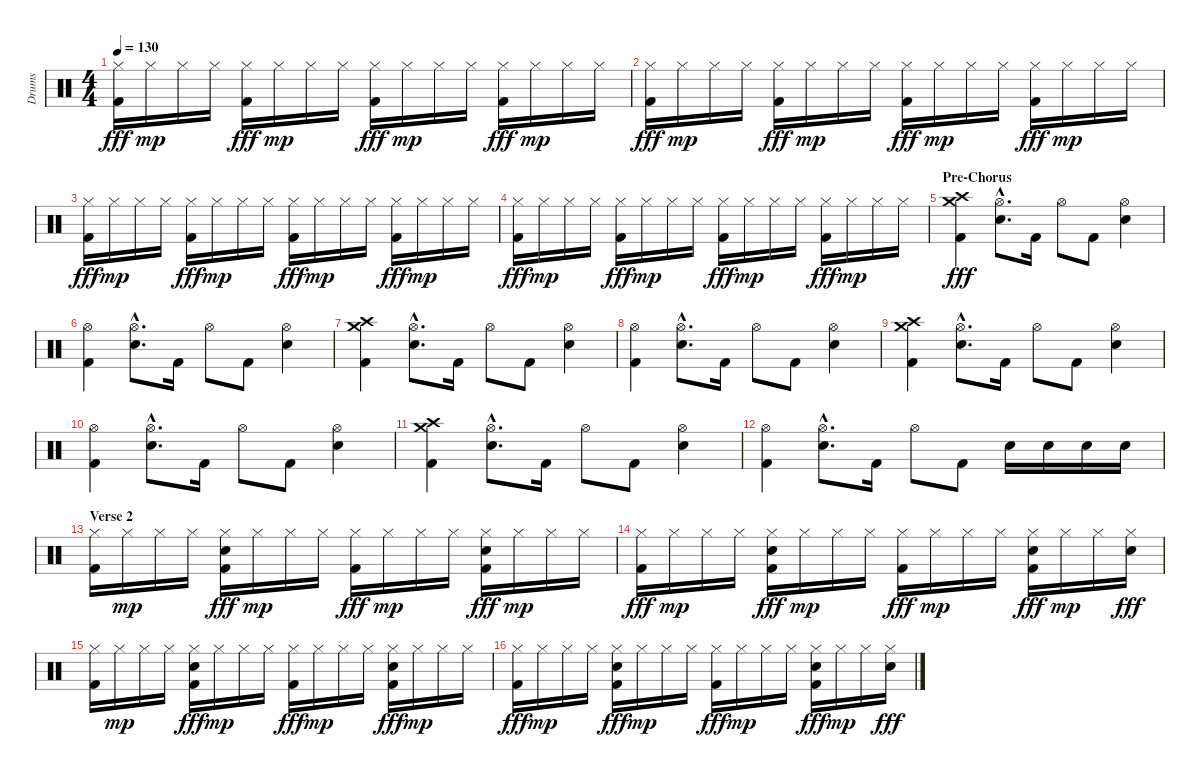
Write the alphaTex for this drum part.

\track ("Drums" "Drums") {instrument percussion}
\staff {score}
\articulation defaults
\ts (4 4)
\tempo 130
\clef neutral
\ks c
("Hi-Hat (closed)" "Kick (hit) 2").16{dy fff} "Hi-Hat (closed)".16{dy mp} "Hi-Hat (closed)".16 "Hi-Hat (closed)".16 ("Hi-Hat (closed)" "Kick (hit) 2").16{dy fff} "Hi-Hat (closed)".16{dy mp} "Hi-Hat (closed)".16 "Hi-Hat (closed)".16 ("Hi-Hat (closed)" "Kick (hit) 2").16{dy fff} "Hi-Hat (closed)".16{dy mp} "Hi-Hat (closed)".16 "Hi-Hat (closed)".16 ("Hi-Hat (closed)" "Kick (hit) 2").16{dy fff} "Hi-Hat (closed)".16{dy mp} "Hi-Hat (closed)".16 "Hi-Hat (closed)".16 |
("Hi-Hat (closed)" "Kick (hit) 2").16{dy fff} "Hi-Hat (closed)".16{dy mp} "Hi-Hat (closed)".16 "Hi-Hat (closed)".16 ("Hi-Hat (closed)" "Kick (hit) 2").16{dy fff} "Hi-Hat (closed)".16{dy mp} "Hi-Hat (closed)".16 "Hi-Hat (closed)".16 ("Hi-Hat (closed)" "Kick (hit) 2").16{dy fff} "Hi-Hat (closed)".16{dy mp} "Hi-Hat (closed)".16 "Hi-Hat (closed)".16 ("Hi-Hat (closed)" "Kick (hit) 2").16{dy fff} "Hi-Hat (closed)".16{dy mp} "Hi-Hat (closed)".16 "Hi-Hat (closed)".16 |
("Hi-Hat (closed)" "Kick (hit) 2").16{dy fff} "Hi-Hat (closed)".16{dy mp} "Hi-Hat (closed)".16 "Hi-Hat (closed)".16 ("Hi-Hat (closed)" "Kick (hit) 2").16{dy fff} "Hi-Hat (closed)".16{dy mp} "Hi-Hat (closed)".16 "Hi-Hat (closed)".16 ("Hi-Hat (closed)" "Kick (hit) 2").16{dy fff} "Hi-Hat (closed)".16{dy mp} "Hi-Hat (closed)".16 "Hi-Hat (closed)".16 ("Hi-Hat (closed)" "Kick (hit) 2").16{dy fff} "Hi-Hat (closed)".16{dy mp} "Hi-Hat (closed)".16 "Hi-Hat (closed)".16 |
("Hi-Hat (closed)" "Kick (hit) 2").16{dy fff} "Hi-Hat (closed)".16{dy mp} "Hi-Hat (closed)".16 "Hi-Hat (closed)".16 ("Hi-Hat (closed)" "Kick (hit) 2").16{dy fff} "Hi-Hat (closed)".16{dy mp} "Hi-Hat (closed)".16 "Hi-Hat (closed)".16 ("Hi-Hat (closed)" "Kick (hit) 2").16{dy fff} "Hi-Hat (closed)".16{dy mp} "Hi-Hat (closed)".16 "Hi-Hat (closed)".16 ("Hi-Hat (closed)" "Kick (hit) 2").16{dy fff} "Hi-Hat (closed)".16{dy mp} "Hi-Hat (closed)".16 "Hi-Hat (closed)".16 |
\section ("" "Pre-Chorus")
("Crash high (hit)" "Crash medium (hit)" "Kick (hit) 2").4{dy fff} ("Hi-Hat (open)"{hac} "Electric Snare (hit)"{hac}).8{d} "Kick (hit) 2".16 "Hi-Hat (open)".8 "Kick (hit) 2".8 ("Hi-Hat (open)" "Electric Snare (hit)").4 |
("Hi-Hat (open)" "Kick (hit) 2").4 ("Hi-Hat (open)"{hac} "Electric Snare (hit)"{hac}).8{d} "Kick (hit) 2".16 "Hi-Hat (open)".8 "Kick (hit) 2".8 ("Hi-Hat (open)" "Electric Snare (hit)").4 |
("Crash high (hit)" "Crash medium (hit)" "Kick (hit) 2").4 ("Hi-Hat (open)"{hac} "Electric Snare (hit)"{hac}).8{d} "Kick (hit) 2".16 "Hi-Hat (open)".8 "Kick (hit) 2".8 ("Hi-Hat (open)" "Electric Snare (hit)").4 |
("Hi-Hat (open)" "Kick (hit) 2").4 ("Hi-Hat (open)"{hac} "Electric Snare (hit)"{hac}).8{d} "Kick (hit) 2".16 "Hi-Hat (open)".8 "Kick (hit) 2".8 ("Hi-Hat (open)" "Electric Snare (hit)").4 |
("Crash high (hit)" "Crash medium (hit)" "Kick (hit) 2").4 ("Hi-Hat (open)"{hac} "Electric Snare (hit)"{hac}).8{d} "Kick (hit) 2".16 "Hi-Hat (open)".8 "Kick (hit) 2".8 ("Hi-Hat (open)" "Electric Snare (hit)").4 |
("Hi-Hat (open)" "Kick (hit) 2").4 ("Hi-Hat (open)"{hac} "Electric Snare (hit)"{hac}).8{d} "Kick (hit) 2".16 "Hi-Hat (open)".8 "Kick (hit) 2".8 ("Hi-Hat (open)" "Electric Snare (hit)").4 |
("Crash high (hit)" "Crash medium (hit)" "Kick (hit) 2").4 ("Hi-Hat (open)"{hac} "Electric Snare (hit)"{hac}).8{d} "Kick (hit) 2".16 "Hi-Hat (open)".8 "Kick (hit) 2".8 ("Hi-Hat (open)" "Electric Snare (hit)").4 |
("Hi-Hat (open)" "Kick (hit) 2").4 ("Hi-Hat (open)"{hac} "Electric Snare (hit)"{hac}).8{d} "Kick (hit) 2".16 "Hi-Hat (open)".8 "Kick (hit) 2".8 "Electric Snare (hit)".16 "Electric Snare (hit)".16 "Electric Snare (hit)".16 "Electric Snare (hit)".16 |
\section ("" "Verse 2")
("Hi-Hat (closed)" "Kick (hit) 2").16 "Hi-Hat (closed)".16{dy mp} "Hi-Hat (closed)".16 "Hi-Hat (closed)".16 ("Hi-Hat (closed)" "Electric Snare (hit)" "Kick (hit) 2").16{dy fff} "Hi-Hat (closed)".16{dy mp} "Hi-Hat (closed)".16 "Hi-Hat (closed)".16 ("Hi-Hat (closed)" "Kick (hit) 2").16{dy fff} "Hi-Hat (closed)".16{dy mp} "Hi-Hat (closed)".16 "Hi-Hat (closed)".16 ("Hi-Hat (closed)" "Electric Snare (hit)" "Kick (hit) 2").16{dy fff} "Hi-Hat (closed)".16{dy mp} "Hi-Hat (closed)".16 "Hi-Hat (closed)".16 |
("Hi-Hat (closed)" "Kick (hit) 2").16{dy fff} "Hi-Hat (closed)".16{dy mp} "Hi-Hat (closed)".16 "Hi-Hat (closed)".16 ("Hi-Hat (closed)" "Electric Snare (hit)" "Kick (hit) 2").16{dy fff} "Hi-Hat (closed)".16{dy mp} "Hi-Hat (closed)".16 "Hi-Hat (closed)".16 ("Hi-Hat (closed)" "Kick (hit) 2").16{dy fff} "Hi-Hat (closed)".16{dy mp} "Hi-Hat (closed)".16 "Hi-Hat (closed)".16 ("Hi-Hat (closed)" "Electric Snare (hit)" "Kick (hit) 2").16{dy fff} "Hi-Hat (closed)".16{dy mp} "Hi-Hat (closed)".16 ("Hi-Hat (closed)" "Electric Snare (hit)").16{dy fff} |
("Hi-Hat (closed)" "Kick (hit) 2").16 "Hi-Hat (closed)".16{dy mp} "Hi-Hat (closed)".16 "Hi-Hat (closed)".16 ("Hi-Hat (closed)" "Electric Snare (hit)" "Kick (hit) 2").16{dy fff} "Hi-Hat (closed)".16{dy mp} "Hi-Hat (closed)".16 "Hi-Hat (closed)".16 ("Hi-Hat (closed)" "Kick (hit) 2").16{dy fff} "Hi-Hat (closed)".16{dy mp} "Hi-Hat (closed)".16 "Hi-Hat (closed)".16 ("Hi-Hat (closed)" "Electric Snare (hit)" "Kick (hit) 2").16{dy fff} "Hi-Hat (closed)".16{dy mp} "Hi-Hat (closed)".16 "Hi-Hat (closed)".16 |
("Hi-Hat (closed)" "Kick (hit) 2").16{dy fff} "Hi-Hat (closed)".16{dy mp} "Hi-Hat (closed)".16 "Hi-Hat (closed)".16 ("Hi-Hat (closed)" "Electric Snare (hit)" "Kick (hit) 2").16{dy fff} "Hi-Hat (closed)".16{dy mp} "Hi-Hat (closed)".16 "Hi-Hat (closed)".16 ("Hi-Hat (closed)" "Kick (hit) 2").16{dy fff} "Hi-Hat (closed)".16{dy mp} "Hi-Hat (closed)".16 "Hi-Hat (closed)".16 ("Hi-Hat (closed)" "Electric Snare (hit)" "Kick (hit) 2").16{dy fff} "Hi-Hat (closed)".16{dy mp} "Hi-Hat (closed)".16 ("Hi-Hat (closed)" "Electric Snare (hit)").16{dy fff}
